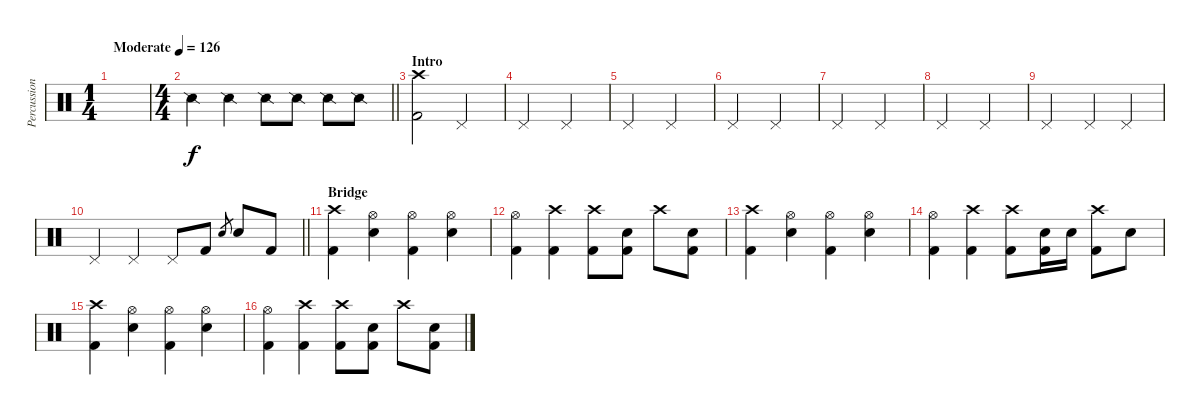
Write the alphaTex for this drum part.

\track ("Percussion" "Percussion") {instrument percussion}
\staff {score}
\articulation defaults
\ts (1 4)
\tempo (126 "Moderate")
\clef neutral
\ks c
|
\ts (4 4)
\barLineRight lightlight "Snare (side stick) 2".4 "Snare (side stick) 2".4 "Snare (side stick) 2".8 "Snare (side stick) 2".8 "Snare (side stick) 2".8 "Snare (side stick) 2".8
|
\section ("" "Intro")
("Crash high (hit)" "Kick (hit) 2").2 "Pedal Hi-Hat (hit)".2 |
"Pedal Hi-Hat (hit)".2 "Pedal Hi-Hat (hit)".2 |
"Pedal Hi-Hat (hit)".2 "Pedal Hi-Hat (hit)".2 |
"Pedal Hi-Hat (hit)".2 "Pedal Hi-Hat (hit)".2 |
"Pedal Hi-Hat (hit)".2 "Pedal Hi-Hat (hit)".2 |
"Pedal Hi-Hat (hit)".2 "Pedal Hi-Hat (hit)".2 |
"Pedal Hi-Hat (hit)".2 "Pedal Hi-Hat (hit)".4 "Pedal Hi-Hat (hit)".4 |
\barLineRight lightlight "Pedal Hi-Hat (hit)".4 "Pedal Hi-Hat (hit)".4 "Pedal Hi-Hat (hit)".8 "Kick (hit) 2".8 "Electric Snare (hit)".8{gr} "Electric Snare (hit)".8 "Kick (hit) 2".8
|
\section ("" "Bridge")
("Crash high (hit)" "Kick (hit) 2").4 ("Hi-Hat (open)" "Electric Snare (hit)").4 ("Hi-Hat (open)" "Kick (hit) 2").4 ("Hi-Hat (open)" "Electric Snare (hit)").4 |
("Hi-Hat (open)" "Kick (hit) 2").4 ("Crash high (hit)" "Kick (hit) 2").4 ("Crash high (hit)" "Kick (hit) 2").8 ("Electric Snare (hit)" "Kick (hit) 2").8 "Crash high (hit)".8 ("Electric Snare (hit)" "Kick (hit) 2").8 |
("Crash high (hit)" "Kick (hit) 2").4 ("Hi-Hat (open)" "Electric Snare (hit)").4 ("Hi-Hat (open)" "Kick (hit) 2").4 ("Hi-Hat (open)" "Electric Snare (hit)").4 |
("Hi-Hat (open)" "Kick (hit) 2").4 ("Crash high (hit)" "Kick (hit) 2").4 ("Crash high (hit)" "Kick (hit) 2").8 ("Electric Snare (hit)" "Kick (hit) 2").16 "Electric Snare (hit)".16 ("Crash high (hit)" "Kick (hit) 2").8 "Electric Snare (hit)".8 |
("Crash high (hit)" "Kick (hit) 2").4 ("Hi-Hat (open)" "Electric Snare (hit)").4 ("Hi-Hat (open)" "Kick (hit) 2").4 ("Hi-Hat (open)" "Electric Snare (hit)").4 |
("Hi-Hat (open)" "Kick (hit) 2").4 ("Crash high (hit)" "Kick (hit) 2").4 ("Crash high (hit)" "Kick (hit) 2").8 ("Electric Snare (hit)" "Kick (hit) 2").8 "Crash high (hit)".8 ("Electric Snare (hit)" "Kick (hit) 2").8
